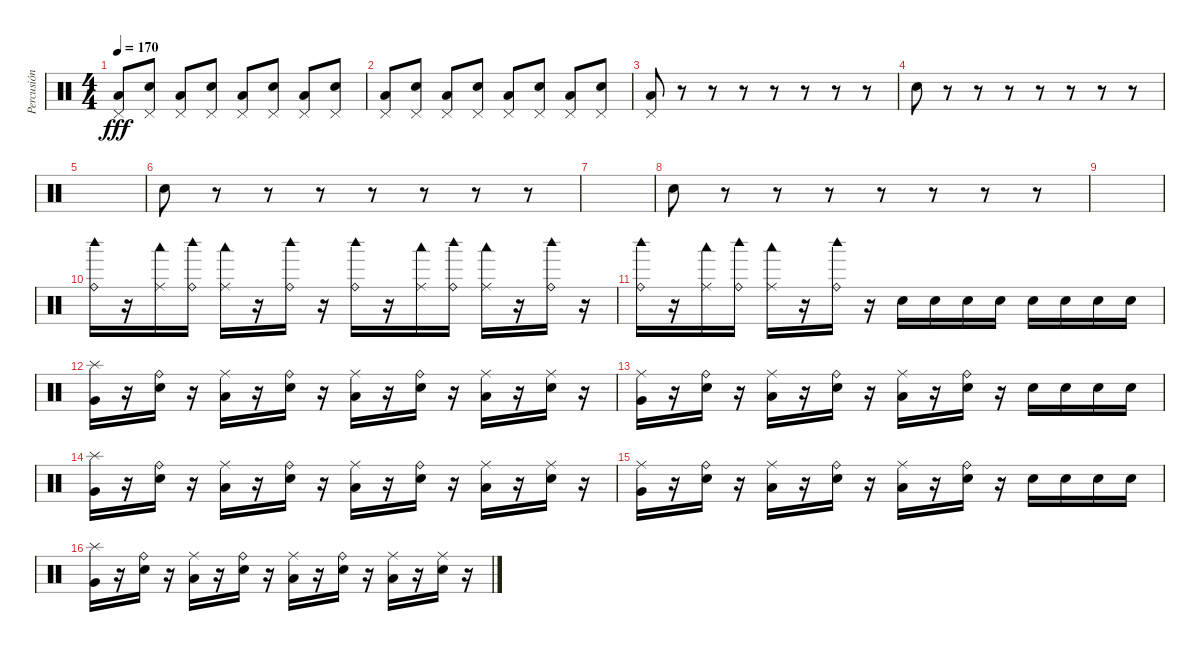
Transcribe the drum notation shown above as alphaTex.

\track ("Percusión" "Percusión") {instrument percussion}
\staff {score}
\articulation defaults
\ts (4 4)
\tempo 170
\clef neutral
\ks c
("Pedal Hi-Hat (hit)" "Low Tom (hit)").8{dy fff} ("Pedal Hi-Hat (hit)" "Electric Snare (hit)").8 ("Pedal Hi-Hat (hit)" "Low Tom (hit)").8 ("Pedal Hi-Hat (hit)" "Electric Snare (hit)").8 ("Pedal Hi-Hat (hit)" "Low Tom (hit)").8 ("Pedal Hi-Hat (hit)" "Electric Snare (hit)").8 ("Pedal Hi-Hat (hit)" "Low Tom (hit)").8 ("Pedal Hi-Hat (hit)" "Electric Snare (hit)").8 |
("Pedal Hi-Hat (hit)" "Low Tom (hit)").8 ("Pedal Hi-Hat (hit)" "Electric Snare (hit)").8 ("Pedal Hi-Hat (hit)" "Low Tom (hit)").8 ("Pedal Hi-Hat (hit)" "Electric Snare (hit)").8 ("Pedal Hi-Hat (hit)" "Low Tom (hit)").8 ("Pedal Hi-Hat (hit)" "Electric Snare (hit)").8 ("Pedal Hi-Hat (hit)" "Low Tom (hit)").8 ("Pedal Hi-Hat (hit)" "Electric Snare (hit)").8 |
("Pedal Hi-Hat (hit)" "Low Tom (hit)").8 r.8 r.8 r.8 r.8 r.8 r.8 r.8 |
"Snare (hit) 2".8 r.8 r.8 r.8 r.8 r.8 r.8 r.8 |
|
"Snare (hit) 2".8 r.8 r.8 r.8 r.8 r.8 r.8 r.8 |
|
"Snare (hit) 2".8 r.8 r.8 r.8 r.8 r.8 r.8 r.8 |
|
("Woodblock high (hit)" "Ride (bell)").16 r.16 ("Woodblock low (hit)" "Ride (middle)").16 ("Woodblock high (hit)" "Ride (bell)").16 ("Woodblock low (hit)" "Ride (middle)").16 r.16 ("Woodblock high (hit)" "Ride (bell)").16 r.16 ("Woodblock high (hit)" "Ride (bell)").16 r.16 ("Woodblock low (hit)" "Ride (middle)").16 ("Woodblock high (hit)" "Ride (bell)").16 ("Woodblock low (hit)" "Ride (middle)").16 r.16 ("Woodblock high (hit)" "Ride (bell)").16 r.16 |
("Woodblock high (hit)" "Ride (bell)").16 r.16 ("Woodblock low (hit)" "Ride (middle)").16 ("Woodblock high (hit)" "Ride (bell)").16 ("Woodblock low (hit)" "Ride (middle)").16 r.16 ("Woodblock high (hit)" "Ride (bell)").16 r.16 "Snare (hit) 2".16 "Snare (hit) 2".16 "Snare (hit) 2".16 "Snare (hit) 2".16 "Snare (hit) 2".16 "Snare (hit) 2".16 "Snare (hit) 2".16 "Snare (hit) 2".16 |
("Splash (hit)" "Very Low Tom (hit)").16 r.16 ("Ride (bell)" "Snare (hit) 2").16 r.16 ("Ride (middle)" "Low Tom (hit)").16 r.16 ("Ride (bell)" "Snare (hit) 2").16 r.16 ("Ride (middle)" "Low Tom (hit)").16 r.16 ("Ride (bell)" "Snare (hit) 2").16 r.16 ("Ride (middle)" "Low Tom (hit)").16 r.16 ("Ride (middle)" "Snare (hit) 2").16 r.16 |
("Ride (middle)" "Very Low Tom (hit)").16 r.16 ("Ride (bell)" "Snare (hit) 2").16 r.16 ("Ride (middle)" "Low Tom (hit)").16 r.16 ("Ride (bell)" "Snare (hit) 2").16 r.16 ("Ride (middle)" "Low Tom (hit)").16 r.16 ("Ride (bell)" "Snare (hit) 2").16 r.16 "Snare (hit) 2".16 "Snare (hit) 2".16 "Snare (hit) 2".16 "Snare (hit) 2".16 |
("Splash (hit)" "Very Low Tom (hit)").16 r.16 ("Ride (bell)" "Snare (hit) 2").16 r.16 ("Ride (middle)" "Low Tom (hit)").16 r.16 ("Ride (bell)" "Snare (hit) 2").16 r.16 ("Ride (middle)" "Low Tom (hit)").16 r.16 ("Ride (bell)" "Snare (hit) 2").16 r.16 ("Ride (middle)" "Low Tom (hit)").16 r.16 ("Ride (middle)" "Snare (hit) 2").16 r.16 |
("Ride (middle)" "Very Low Tom (hit)").16 r.16 ("Ride (bell)" "Snare (hit) 2").16 r.16 ("Ride (middle)" "Low Tom (hit)").16 r.16 ("Ride (bell)" "Snare (hit) 2").16 r.16 ("Ride (middle)" "Low Tom (hit)").16 r.16 ("Ride (bell)" "Snare (hit) 2").16 r.16 "Snare (hit) 2".16 "Snare (hit) 2".16 "Snare (hit) 2".16 "Snare (hit) 2".16 |
("Splash (hit)" "Very Low Tom (hit)").16 r.16 ("Ride (bell)" "Snare (hit) 2").16 r.16 ("Ride (middle)" "Low Tom (hit)").16 r.16 ("Ride (bell)" "Snare (hit) 2").16 r.16 ("Ride (middle)" "Low Tom (hit)").16 r.16 ("Ride (bell)" "Snare (hit) 2").16 r.16 ("Ride (middle)" "Low Tom (hit)").16 r.16 ("Ride (middle)" "Snare (hit) 2").16 r.16
